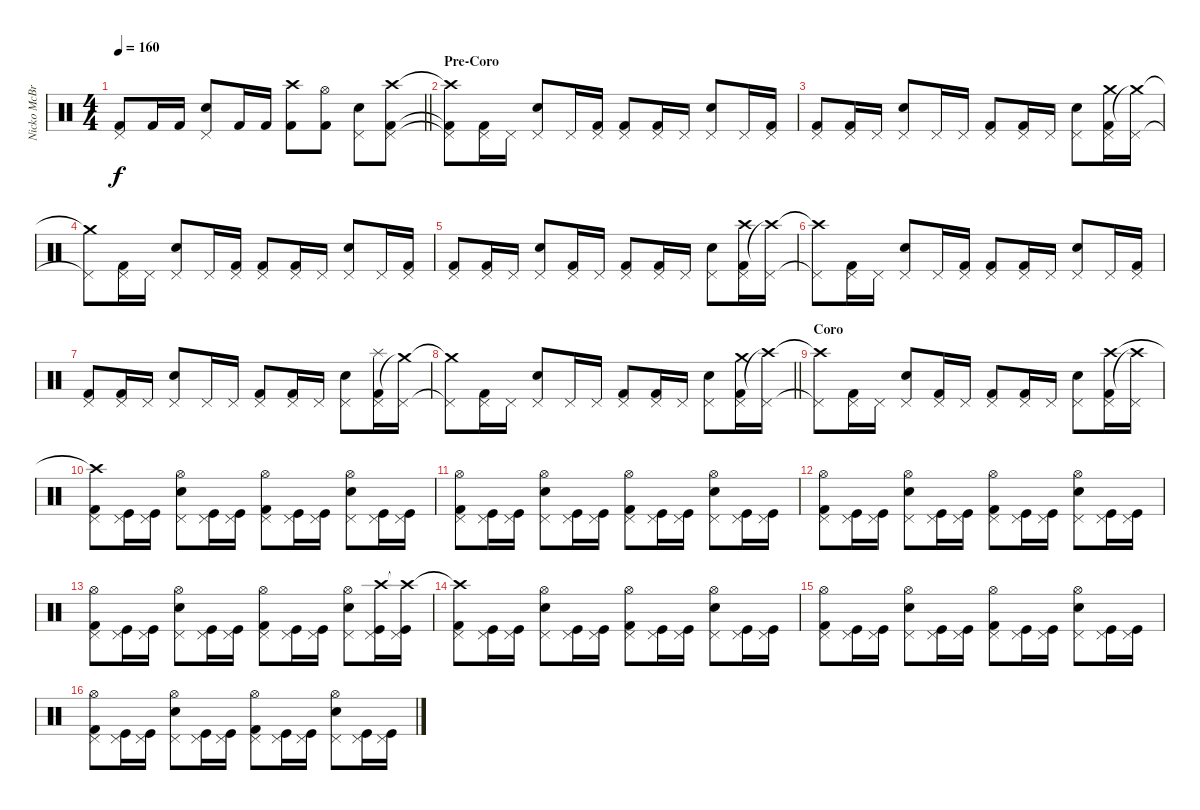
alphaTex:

\track ("Nicko McBrain" "Nicko McBr") {instrument percussion}
\staff {score}
\articulation defaults
\ts (4 4)
\tempo 160
\clef neutral
\barLineRight lightlight
\ks c
("Kick (hit) 2" "Pedal Hi-Hat (hit)").8{dy f} "Kick (hit) 2".16 "Kick (hit) 2".16 ("Snare (hit) 2" "Pedal Hi-Hat (hit)").8 "Kick (hit) 2".16 "Kick (hit) 2".16 ("Kick (hit) 2" "Crash high (hit)").8 ("Kick (hit) 2" "Hi-Hat (open)").8 ("Snare (hit) 2" "Pedal Hi-Hat (hit)").8 ("Pedal Hi-Hat (hit)" "Kick (hit) 2" "Crash high (hit)").8 |
\section ("" "Pre-Coro")
("Pedal Hi-Hat (hit)"{t} "Kick (hit) 2"{t} "Crash high (hit)"{t}).8 ("Pedal Hi-Hat (hit)" "Kick (hit) 2").16 "Pedal Hi-Hat (hit)".16 ("Pedal Hi-Hat (hit)" "Snare (hit) 2").8 "Pedal Hi-Hat (hit)".16 ("Pedal Hi-Hat (hit)" "Kick (hit) 2").16 ("Pedal Hi-Hat (hit)" "Kick (hit) 2").8 ("Pedal Hi-Hat (hit)" "Kick (hit) 2").16 "Pedal Hi-Hat (hit)".16 ("Pedal Hi-Hat (hit)" "Snare (hit) 2").8 "Pedal Hi-Hat (hit)".16 ("Pedal Hi-Hat (hit)" "Kick (hit) 2").16 |
("Pedal Hi-Hat (hit)" "Kick (hit) 2").8 ("Pedal Hi-Hat (hit)" "Kick (hit) 2").16 "Pedal Hi-Hat (hit)".16 ("Pedal Hi-Hat (hit)" "Snare (hit) 2").8 "Pedal Hi-Hat (hit)".16 "Pedal Hi-Hat (hit)".16 ("Pedal Hi-Hat (hit)" "Kick (hit) 2").8 ("Pedal Hi-Hat (hit)" "Kick (hit) 2").16 "Pedal Hi-Hat (hit)".16 ("Pedal Hi-Hat (hit)" "Snare (hit) 2").8 ("Pedal Hi-Hat (hit)" "Kick (hit) 2" "Crash medium (hit)").16 ("Pedal Hi-Hat (hit)" "Crash medium (hit)"{t}).16 |
("Pedal Hi-Hat (hit)"{t} "Crash medium (hit)"{t}).8 ("Pedal Hi-Hat (hit)" "Kick (hit) 2").16 "Pedal Hi-Hat (hit)".16 ("Pedal Hi-Hat (hit)" "Snare (hit) 2").8 "Pedal Hi-Hat (hit)".16 ("Pedal Hi-Hat (hit)" "Kick (hit) 2").16 ("Pedal Hi-Hat (hit)" "Kick (hit) 2").8 ("Pedal Hi-Hat (hit)" "Kick (hit) 2").16 "Pedal Hi-Hat (hit)".16 ("Pedal Hi-Hat (hit)" "Snare (hit) 2").8 "Pedal Hi-Hat (hit)".16 ("Pedal Hi-Hat (hit)" "Kick (hit) 2").16 |
("Pedal Hi-Hat (hit)" "Kick (hit) 2").8 ("Pedal Hi-Hat (hit)" "Kick (hit) 2").16 "Pedal Hi-Hat (hit)".16 ("Pedal Hi-Hat (hit)" "Snare (hit) 2").8 ("Pedal Hi-Hat (hit)" "Kick (hit) 2").16 "Pedal Hi-Hat (hit)".16 ("Pedal Hi-Hat (hit)" "Kick (hit) 2").8 ("Pedal Hi-Hat (hit)" "Kick (hit) 2").16 "Pedal Hi-Hat (hit)".16 ("Pedal Hi-Hat (hit)" "Snare (hit) 2").8 ("Pedal Hi-Hat (hit)" "Kick (hit) 2" "Crash high (hit)").16 ("Pedal Hi-Hat (hit)" "Crash high (hit)"{t}).16 |
("Pedal Hi-Hat (hit)"{t} "Crash high (hit)"{t}).8 ("Pedal Hi-Hat (hit)" "Kick (hit) 2").16 "Pedal Hi-Hat (hit)".16 ("Pedal Hi-Hat (hit)" "Snare (hit) 2").8 "Pedal Hi-Hat (hit)".16 ("Pedal Hi-Hat (hit)" "Kick (hit) 2").16 ("Pedal Hi-Hat (hit)" "Kick (hit) 2").8 ("Pedal Hi-Hat (hit)" "Kick (hit) 2").16 "Pedal Hi-Hat (hit)".16 ("Pedal Hi-Hat (hit)" "Snare (hit) 2").8 "Pedal Hi-Hat (hit)".16 ("Pedal Hi-Hat (hit)" "Kick (hit) 2").16 |
("Pedal Hi-Hat (hit)" "Kick (hit) 2").8 ("Pedal Hi-Hat (hit)" "Kick (hit) 2").16 "Pedal Hi-Hat (hit)".16 ("Pedal Hi-Hat (hit)" "Snare (hit) 2").8 "Pedal Hi-Hat (hit)".16 "Pedal Hi-Hat (hit)".16 ("Pedal Hi-Hat (hit)" "Kick (hit) 2").8 ("Pedal Hi-Hat (hit)" "Kick (hit) 2").16 "Pedal Hi-Hat (hit)".16 ("Pedal Hi-Hat (hit)" "Snare (hit) 2").8 ("Pedal Hi-Hat (hit)" "Kick (hit) 2" "Splash (hit)").16 ("Pedal Hi-Hat (hit)" "Crash medium (hit)"{t}).16 |
\barLineRight lightlight
("Pedal Hi-Hat (hit)"{t} "Crash medium (hit)"{t}).8 ("Pedal Hi-Hat (hit)" "Kick (hit) 2").16 "Pedal Hi-Hat (hit)".16 ("Pedal Hi-Hat (hit)" "Snare (hit) 2").8 "Pedal Hi-Hat (hit)".16 "Pedal Hi-Hat (hit)".16 ("Pedal Hi-Hat (hit)" "Kick (hit) 2").8 ("Pedal Hi-Hat (hit)" "Kick (hit) 2").16 "Pedal Hi-Hat (hit)".16 ("Pedal Hi-Hat (hit)" "Snare (hit) 2").8 ("Pedal Hi-Hat (hit)" "Kick (hit) 2" "Crash medium (hit)").16 ("Pedal Hi-Hat (hit)" "Crash high (hit)"{t}).16 |
\section ("" "Coro")
("Pedal Hi-Hat (hit)"{t} "Crash high (hit)"{t}).8 ("Pedal Hi-Hat (hit)" "Kick (hit) 2").16 "Pedal Hi-Hat (hit)".16 ("Pedal Hi-Hat (hit)" "Snare (hit) 2").8 ("Pedal Hi-Hat (hit)" "Kick (hit) 2").16 "Pedal Hi-Hat (hit)".16 ("Pedal Hi-Hat (hit)" "Kick (hit) 2").8 ("Pedal Hi-Hat (hit)" "Kick (hit) 2").16 "Pedal Hi-Hat (hit)".16 ("Pedal Hi-Hat (hit)" "Snare (hit) 2").8 ("Pedal Hi-Hat (hit)" "Kick (hit) 2" "Crash high (hit)").16 ("Pedal Hi-Hat (hit)" "Crash high (hit)"{t}).16 |
("Pedal Hi-Hat (hit)" "Kick (hit) 2" "Crash high (hit)"{t}).8 ("Kick (hit)" "Pedal Hi-Hat (hit)").16 ("Kick (hit)" "Pedal Hi-Hat (hit)").16 ("Snare (hit) 2" "Pedal Hi-Hat (hit)" "Hi-Hat (open)").8 ("Kick (hit)" "Pedal Hi-Hat (hit)").16 ("Kick (hit)" "Pedal Hi-Hat (hit)").16 ("Kick (hit) 2" "Pedal Hi-Hat (hit)" "Hi-Hat (open)").8 ("Kick (hit)" "Pedal Hi-Hat (hit)").16 ("Kick (hit)" "Pedal Hi-Hat (hit)").16 ("Snare (hit) 2" "Pedal Hi-Hat (hit)" "Hi-Hat (open)").8 ("Kick (hit)" "Pedal Hi-Hat (hit)").16 ("Kick (hit)" "Pedal Hi-Hat (hit)").16 |
("Kick (hit) 2" "Pedal Hi-Hat (hit)" "Hi-Hat (open)").8 ("Kick (hit)" "Pedal Hi-Hat (hit)").16 ("Kick (hit)" "Pedal Hi-Hat (hit)").16 ("Snare (hit) 2" "Pedal Hi-Hat (hit)" "Hi-Hat (open)").8 ("Kick (hit)" "Pedal Hi-Hat (hit)").16 ("Kick (hit)" "Pedal Hi-Hat (hit)").16 ("Kick (hit) 2" "Pedal Hi-Hat (hit)" "Hi-Hat (open)").8 ("Kick (hit)" "Pedal Hi-Hat (hit)").16 ("Kick (hit)" "Pedal Hi-Hat (hit)").16 ("Snare (hit) 2" "Pedal Hi-Hat (hit)" "Hi-Hat (open)").8 ("Kick (hit)" "Pedal Hi-Hat (hit)").16 ("Kick (hit)" "Pedal Hi-Hat (hit)").16 |
("Kick (hit) 2" "Pedal Hi-Hat (hit)" "Hi-Hat (open)").8 ("Kick (hit)" "Pedal Hi-Hat (hit)").16 ("Kick (hit)" "Pedal Hi-Hat (hit)").16 ("Snare (hit) 2" "Pedal Hi-Hat (hit)" "Hi-Hat (open)").8 ("Kick (hit)" "Pedal Hi-Hat (hit)").16 ("Kick (hit)" "Pedal Hi-Hat (hit)").16 ("Kick (hit) 2" "Pedal Hi-Hat (hit)" "Hi-Hat (open)").8 ("Kick (hit)" "Pedal Hi-Hat (hit)").16 ("Kick (hit)" "Pedal Hi-Hat (hit)").16 ("Snare (hit) 2" "Pedal Hi-Hat (hit)" "Hi-Hat (open)").8 ("Kick (hit)" "Pedal Hi-Hat (hit)").16 ("Kick (hit)" "Pedal Hi-Hat (hit)").16 |
("Kick (hit) 2" "Pedal Hi-Hat (hit)" "Hi-Hat (open)").8 ("Kick (hit)" "Pedal Hi-Hat (hit)").16 ("Kick (hit)" "Pedal Hi-Hat (hit)").16 ("Snare (hit) 2" "Pedal Hi-Hat (hit)" "Hi-Hat (open)").8 ("Kick (hit)" "Pedal Hi-Hat (hit)").16 ("Kick (hit)" "Pedal Hi-Hat (hit)").16 ("Kick (hit) 2" "Pedal Hi-Hat (hit)" "Hi-Hat (open)").8 ("Kick (hit)" "Pedal Hi-Hat (hit)").16 ("Kick (hit)" "Pedal Hi-Hat (hit)").16 ("Snare (hit) 2" "Pedal Hi-Hat (hit)" "Hi-Hat (open)").8 ("Kick (hit)" "Pedal Hi-Hat (hit)" "Crash high (hit)").16 ("Kick (hit)" "Pedal Hi-Hat (hit)" "Crash high (hit)"{t}).16 |
("Kick (hit) 2" "Pedal Hi-Hat (hit)" "Crash high (hit)"{t}).8 ("Kick (hit)" "Pedal Hi-Hat (hit)").16 ("Kick (hit)" "Pedal Hi-Hat (hit)").16 ("Snare (hit) 2" "Pedal Hi-Hat (hit)" "Hi-Hat (open)").8 ("Kick (hit)" "Pedal Hi-Hat (hit)").16 ("Kick (hit)" "Pedal Hi-Hat (hit)").16 ("Kick (hit) 2" "Pedal Hi-Hat (hit)" "Hi-Hat (open)").8 ("Kick (hit)" "Pedal Hi-Hat (hit)").16 ("Kick (hit)" "Pedal Hi-Hat (hit)").16 ("Snare (hit) 2" "Pedal Hi-Hat (hit)" "Hi-Hat (open)").8 ("Kick (hit)" "Pedal Hi-Hat (hit)").16 ("Kick (hit)" "Pedal Hi-Hat (hit)").16 |
("Kick (hit) 2" "Pedal Hi-Hat (hit)" "Hi-Hat (open)").8 ("Kick (hit)" "Pedal Hi-Hat (hit)").16 ("Kick (hit)" "Pedal Hi-Hat (hit)").16 ("Snare (hit) 2" "Pedal Hi-Hat (hit)" "Hi-Hat (open)").8 ("Kick (hit)" "Pedal Hi-Hat (hit)").16 ("Kick (hit)" "Pedal Hi-Hat (hit)").16 ("Kick (hit) 2" "Pedal Hi-Hat (hit)" "Hi-Hat (open)").8 ("Kick (hit)" "Pedal Hi-Hat (hit)").16 ("Kick (hit)" "Pedal Hi-Hat (hit)").16 ("Snare (hit) 2" "Pedal Hi-Hat (hit)" "Hi-Hat (open)").8 ("Kick (hit)" "Pedal Hi-Hat (hit)").16 ("Kick (hit)" "Pedal Hi-Hat (hit)").16 |
("Kick (hit) 2" "Pedal Hi-Hat (hit)" "Hi-Hat (open)").8 ("Kick (hit)" "Pedal Hi-Hat (hit)").16 ("Kick (hit)" "Pedal Hi-Hat (hit)").16 ("Snare (hit) 2" "Pedal Hi-Hat (hit)" "Hi-Hat (open)").8 ("Kick (hit)" "Pedal Hi-Hat (hit)").16 ("Kick (hit)" "Pedal Hi-Hat (hit)").16 ("Kick (hit) 2" "Pedal Hi-Hat (hit)" "Hi-Hat (open)").8 ("Kick (hit)" "Pedal Hi-Hat (hit)").16 ("Kick (hit)" "Pedal Hi-Hat (hit)").16 ("Snare (hit) 2" "Pedal Hi-Hat (hit)" "Hi-Hat (open)").8 ("Kick (hit)" "Pedal Hi-Hat (hit)").16 ("Kick (hit)" "Pedal Hi-Hat (hit)").16
